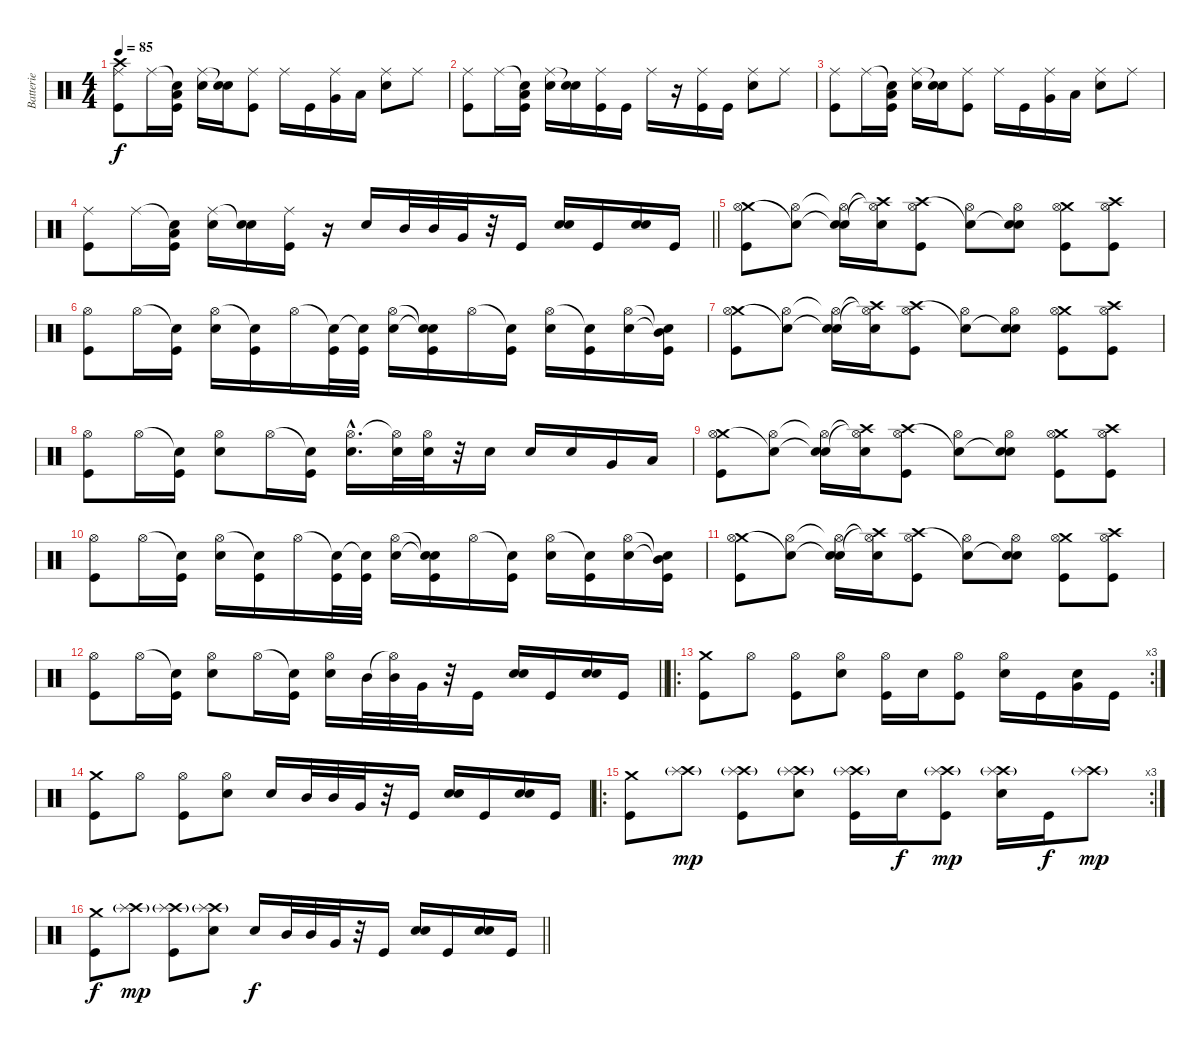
\track ("Batterie" "Batterie") {instrument percussion}
\staff {score}
\articulation defaults
\ts (4 4)
\tempo 85
\clef neutral
\ks c
("Crash high (hit)" "Ride (middle)" "Kick (hit)").8{dy f} "Ride (middle)".16 ("Snare (hit)"{t} "Low Tom (hit)" "Kick (hit)").16 ("Ride (middle)" "Snare (hit) 2").16 ("Snare (hit)"{t} "Snare (hit) 2").16 ("Ride (middle)" "Kick (hit)").8 "Ride (middle)".16 "Kick (hit)".16 ("Ride (middle)" "Very Low Tom (hit)").16 "Low Tom (hit)".16 ("Ride (middle)" "Snare (hit) 2").8 "Ride (middle)".8 |
("Ride (middle)" "Kick (hit)").8 "Ride (middle)".16 ("Snare (hit)"{t} "Low Tom (hit)" "Kick (hit)").16 ("Ride (middle)" "Snare (hit) 2").16 ("Snare (hit)"{t} "Snare (hit) 2").16 ("Ride (middle)" "Kick (hit)").16 "Kick (hit)".16 "Ride (middle)".16 r.16 ("Ride (middle)" "Kick (hit)").16 "Kick (hit)".16 ("Ride (middle)" "Snare (hit) 2").8 "Ride (middle)".8 |
("Ride (middle)" "Kick (hit)").8 "Ride (middle)".16 ("Snare (hit)"{t} "Low Tom (hit)" "Kick (hit)").16 ("Ride (middle)" "Snare (hit) 2").16 ("Snare (hit)"{t} "Snare (hit) 2").16 ("Ride (middle)" "Kick (hit)").8 "Ride (middle)".16 "Kick (hit)".16 ("Ride (middle)" "Very Low Tom (hit)").16 "Low Tom (hit)".16 ("Ride (middle)" "Snare (hit) 2").8 "Ride (middle)".8 |
\barLineRight lightlight
("Ride (middle)" "Kick (hit)").8 "Ride (middle)".16 ("Snare (hit)"{t} "Low Tom (hit)" "Kick (hit)").16 ("Ride (middle)" "Snare (hit) 2").16 ("Snare (hit)"{t} "Snare (hit) 2").16 ("Ride (middle)" "Kick (hit)").16 r.16 "Snare (hit) 2".16 "Mid Tom (hit)".32 "Mid Tom (hit)".32 "Very Low Tom (hit)".32 r.32 "Kick (hit)".16 ("Snare (hit) 2" "Snare (hit) 2").16 "Kick (hit)".16 ("Snare (hit) 2" "Snare (hit) 2").16 "Kick (hit)".16 |
("Crash medium (hit)" "Hi-Hat (open)" "Kick (hit)").8 ("Snare (hit)"{t} "Hi-Hat (open)").8 ("Snare (hit)"{t} "Hi-Hat (open)"{t} "Snare (hit) 2").16 ("Crash high (hit)"{t} "Hi-Hat (open)"{t} "Snare (hit) 2").16 ("Crash high (hit)" "Hi-Hat (open)" "Kick (hit)").8 ("Snare (hit)"{t} "Hi-Hat (open)").8 ("Snare (hit)"{t} "Hi-Hat (open)" "Snare (hit) 2").8 ("Crash medium (hit)" "Hi-Hat (open)" "Kick (hit)").8 ("Crash high (hit)" "Hi-Hat (open)" "Kick (hit)").8 |
("Hi-Hat (open)" "Kick (hit)").8 "Hi-Hat (open)".16 ("Snare (hit)"{t} "Kick (hit)").16 ("Hi-Hat (open)" "Snare (hit) 2").16 ("Snare (hit)"{t} "Kick (hit)").16 "Hi-Hat (open)".16 ("Snare (hit)"{t} "Kick (hit)").32 ("Snare (hit)"{t} "Kick (hit)").32 ("Hi-Hat (open)" "Snare (hit) 2").16 ("Snare (hit)"{t} "Snare (hit)"{t} "Kick (hit)").16 "Hi-Hat (open)".16 ("Snare (hit)"{t} "Kick (hit)").16 ("Hi-Hat (open)" "Snare (hit) 2").16 ("Snare (hit)"{t} "Kick (hit)").16 ("Hi-Hat (open)" "Snare (hit) 2").16 ("Snare (hit)"{t} "Mid Tom (hit)"{t} "Kick (hit)").16 |
("Crash medium (hit)" "Hi-Hat (open)" "Kick (hit)").8 ("Snare (hit)"{t} "Hi-Hat (open)").8 ("Snare (hit)"{t} "Hi-Hat (open)"{t} "Snare (hit) 2").16 ("Crash high (hit)"{t} "Hi-Hat (open)"{t} "Snare (hit) 2").16 ("Crash high (hit)" "Hi-Hat (open)" "Kick (hit)").8 ("Snare (hit)"{t} "Hi-Hat (open)").8 ("Snare (hit)"{t} "Hi-Hat (open)" "Snare (hit) 2").8 ("Crash medium (hit)" "Hi-Hat (open)" "Kick (hit)").8 ("Crash high (hit)" "Hi-Hat (open)" "Kick (hit)").8 |
("Hi-Hat (open)" "Kick (hit)").8 "Hi-Hat (open)".16 ("Snare (hit)"{t} "Kick (hit)").16 ("Hi-Hat (open)" "Snare (hit) 2").8 "Hi-Hat (open)".16 ("Snare (hit)"{t} "Kick (hit)").16 ("Hi-Hat (open)"{hac} "Snare (hit) 2"{hac}).16{d} ("Hi-Hat (open)"{t} "Snare (hit) 2").32 ("Hi-Hat (open)" "Snare (hit) 2").32 r.32 "Snare (hit) 2".16 "Snare (hit) 2".16 "Snare (hit) 2".16 "Very Low Tom (hit)".16 "Low Floor Tom (hit)".16 |
("Crash medium (hit)" "Hi-Hat (open)" "Kick (hit)").8 ("Snare (hit)"{t} "Hi-Hat (open)").8 ("Snare (hit)"{t} "Hi-Hat (open)"{t} "Snare (hit) 2").16 ("Crash high (hit)"{t} "Hi-Hat (open)"{t} "Snare (hit) 2").16 ("Crash high (hit)" "Hi-Hat (open)" "Kick (hit)").8 ("Snare (hit)"{t} "Hi-Hat (open)").8 ("Snare (hit)"{t} "Hi-Hat (open)" "Snare (hit) 2").8 ("Crash medium (hit)" "Hi-Hat (open)" "Kick (hit)").8 ("Crash high (hit)" "Hi-Hat (open)" "Kick (hit)").8 |
("Hi-Hat (open)" "Kick (hit)").8 "Hi-Hat (open)".16 ("Snare (hit)"{t} "Kick (hit)").16 ("Hi-Hat (open)" "Snare (hit) 2").16 ("Snare (hit)"{t} "Kick (hit)").16 "Hi-Hat (open)".16 ("Snare (hit)"{t} "Kick (hit)").32 ("Snare (hit)"{t} "Kick (hit)").32 ("Hi-Hat (open)" "Snare (hit) 2").16 ("Snare (hit)"{t} "Snare (hit)"{t} "Kick (hit)").16 "Hi-Hat (open)".16 ("Snare (hit)"{t} "Kick (hit)").16 ("Hi-Hat (open)" "Snare (hit) 2").16 ("Snare (hit)"{t} "Kick (hit)").16 ("Hi-Hat (open)" "Snare (hit) 2").16 ("Snare (hit)"{t} "Mid Tom (hit)"{t} "Kick (hit)").16 |
("Crash medium (hit)" "Hi-Hat (open)" "Kick (hit)").8 ("Snare (hit)"{t} "Hi-Hat (open)").8 ("Snare (hit)"{t} "Hi-Hat (open)"{t} "Snare (hit) 2").16 ("Crash high (hit)"{t} "Hi-Hat (open)"{t} "Snare (hit) 2").16 ("Crash high (hit)" "Hi-Hat (open)" "Kick (hit)").8 ("Snare (hit)"{t} "Hi-Hat (open)").8 ("Snare (hit)"{t} "Hi-Hat (open)" "Snare (hit) 2").8 ("Crash medium (hit)" "Hi-Hat (open)" "Kick (hit)").8 ("Crash high (hit)" "Hi-Hat (open)" "Kick (hit)").8 |
\barLineRight lightlight
("Hi-Hat (open)" "Kick (hit)").8 "Hi-Hat (open)".16 ("Snare (hit)"{t} "Kick (hit)").16 ("Hi-Hat (open)" "Snare (hit) 2").8 "Hi-Hat (open)".16 ("Snare (hit)"{t} "Kick (hit)").16 ("Hi-Hat (open)" "Snare (hit) 2").16 "Mid Tom (hit)".32 ("Hi-Hat (open)"{t} "Mid Tom (hit)").32 "Very Low Tom (hit)".32 r.32 "Kick (hit)".16 ("Snare (hit) 2" "Snare (hit) 2").16 "Kick (hit)".16 ("Snare (hit) 2" "Snare (hit) 2").16 "Kick (hit)".16 |
\ro
\rc 3
("Crash medium (hit)" "Kick (hit)").8 "Hi-Hat (open)".8 ("Hi-Hat (open)" "Kick (hit)").8 ("Hi-Hat (open)" "Snare (hit) 2").8 ("Hi-Hat (open)" "Kick (hit)").16 "Snare (hit) 2".16 ("Hi-Hat (open)" "Kick (hit)").8 ("Hi-Hat (open)" "Snare (hit) 2").16 "Kick (hit)".16 ("Very Low Tom (hit)" "Snare (hit) 2").16 "Kick (hit)".16 |
("Crash medium (hit)" "Kick (hit)").8 "Hi-Hat (open)".8 ("Hi-Hat (open)" "Kick (hit)").8 ("Hi-Hat (open)" "Snare (hit) 2").8 "Snare (hit) 2".16 "Mid Tom (hit)".32 "Mid Tom (hit)".32 "Very Low Tom (hit)".32 r.32 "Kick (hit)".16 ("Snare (hit) 2" "Snare (hit) 2").16 "Kick (hit)".16 ("Snare (hit) 2" "Snare (hit) 2").16 "Kick (hit)".16 |
\ro
\rc 3
("Crash medium (hit)" "Kick (hit)").8 ("Crash high (hit)"{g} "Splash (hit)").8{dy mp} ("Crash high (hit)"{g} "Splash (hit)" "Kick (hit)").8 ("Crash high (hit)"{g} "Splash (hit)" "Snare (hit) 2").8 ("Crash high (hit)"{g} "Splash (hit)" "Kick (hit)").16 "Snare (hit) 2".16{dy f} ("Crash high (hit)"{g} "Splash (hit)" "Kick (hit)").8{dy mp} ("Crash high (hit)"{g} "Splash (hit)" "Snare (hit) 2").16 "Kick (hit)".16{dy f} ("Crash high (hit)"{g} "Splash (hit)").8{dy mp} |
\barLineRight lightlight
("Crash medium (hit)" "Kick (hit)").8{dy f} ("Crash high (hit)"{g} "Splash (hit)").8{dy mp} ("Crash high (hit)"{g} "Splash (hit)" "Kick (hit)").8 ("Crash high (hit)"{g} "Splash (hit)" "Snare (hit) 2").8 "Snare (hit) 2".16{dy f} "Mid Tom (hit)".32 "Mid Tom (hit)".32 "Very Low Tom (hit)".32 r.32 "Kick (hit)".16 ("Snare (hit) 2" "Snare (hit) 2").16 "Kick (hit)".16 ("Snare (hit) 2" "Snare (hit) 2").16 "Kick (hit)".16
